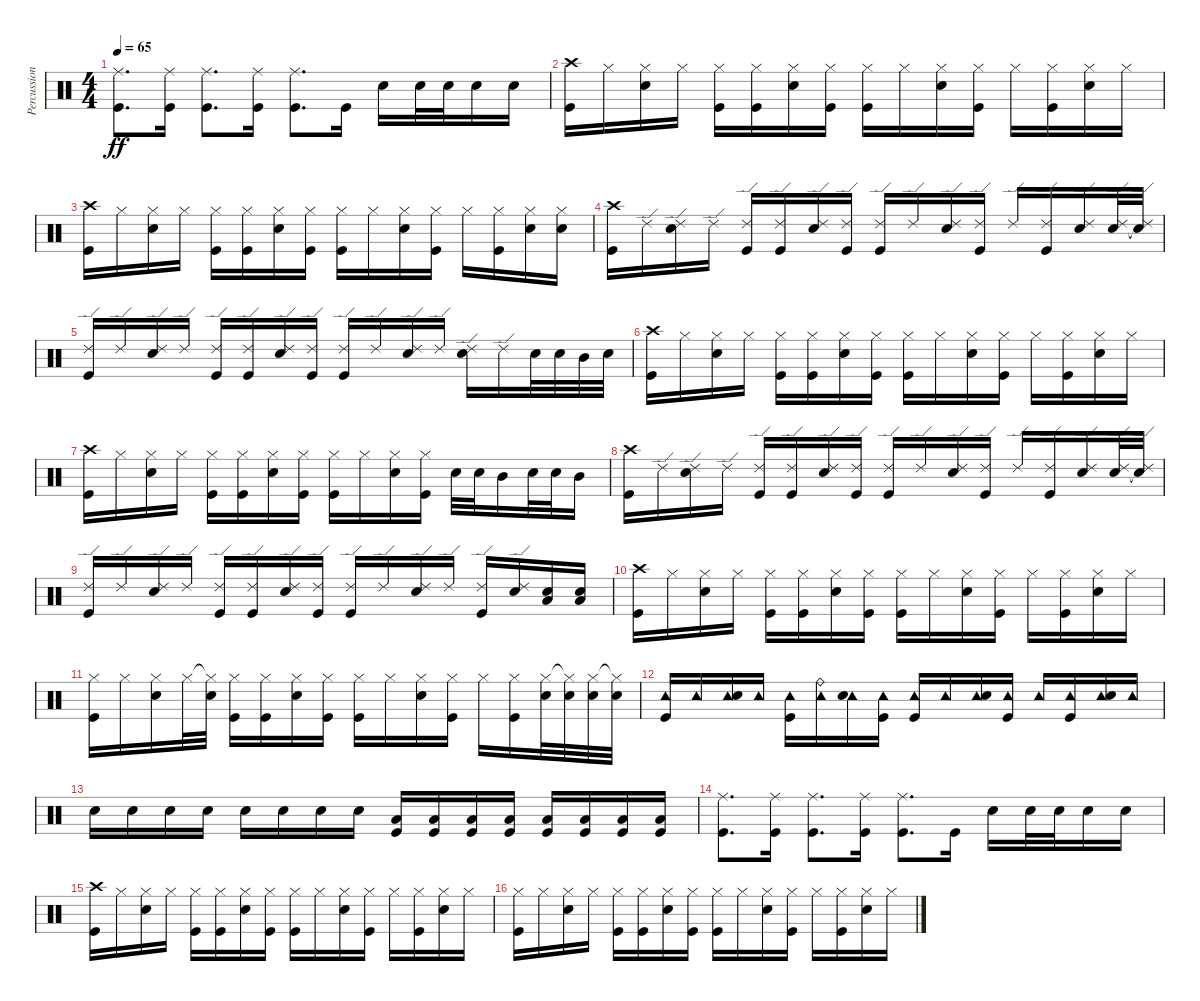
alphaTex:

\track ("Percussioni" "Percussion") {instrument percussion}
\staff {score}
\articulation defaults
\ts (4 4)
\tempo 65
\clef neutral
\ks c
("Ride (middle)" "Kick (hit)").8{d dy ff} ("Ride (middle)" "Kick (hit)").16 ("Ride (middle)" "Kick (hit)").8{d} ("Ride (middle)" "Kick (hit)").16 ("Ride (middle)" "Kick (hit)").8{d} "Kick (hit)".16 "Snare (hit) 2".16 "Snare (hit) 2".32 "Snare (hit) 2".32 "Snare (hit) 2".16 "Snare (hit) 2".16 |
("Crash high (hit)" "Kick (hit)").16 "Hi-Hat (closed)".16 ("Hi-Hat (closed)" "Snare (hit) 2").16 "Hi-Hat (closed)".16 ("Hi-Hat (closed)" "Kick (hit)").16 ("Hi-Hat (closed)" "Kick (hit)").16 ("Hi-Hat (closed)" "Snare (hit) 2").16 ("Hi-Hat (closed)" "Kick (hit)").16 ("Hi-Hat (closed)" "Kick (hit)").16 "Hi-Hat (closed)".16 ("Hi-Hat (closed)" "Snare (hit) 2").16 ("Hi-Hat (closed)" "Kick (hit)").16 "Hi-Hat (closed)".16 ("Hi-Hat (closed)" "Kick (hit)").16 ("Hi-Hat (closed)" "Snare (hit) 2").16 "Hi-Hat (closed)".16 |
("Crash high (hit)" "Kick (hit)").16 "Hi-Hat (closed)".16 ("Hi-Hat (closed)" "Snare (hit) 2").16 "Hi-Hat (closed)".16 ("Hi-Hat (closed)" "Kick (hit)").16 ("Hi-Hat (closed)" "Kick (hit)").16 ("Hi-Hat (closed)" "Snare (hit) 2").16 ("Hi-Hat (closed)" "Kick (hit)").16 ("Hi-Hat (closed)" "Kick (hit)").16 "Hi-Hat (closed)".16 ("Hi-Hat (closed)" "Snare (hit) 2").16 ("Hi-Hat (closed)" "Kick (hit)").16 "Hi-Hat (closed)".16 ("Hi-Hat (closed)" "Kick (hit)").16 ("Hi-Hat (closed)" "Snare (hit) 2").16 ("Hi-Hat (closed)" "Snare (hit) 2").16 |
("Crash high (hit)" "Kick (hit)").16 "Ride (edge) 2".16 ("Ride (edge) 2" "Snare (hit) 2").16 "Ride (edge) 2".16 ("Ride (edge) 2" "Kick (hit)").16 ("Ride (edge) 2" "Kick (hit)").16 ("Ride (edge) 2" "Snare (hit) 2").16 ("Ride (edge) 2" "Kick (hit)").16 ("Ride (edge) 2" "Kick (hit)").16 "Ride (edge) 2".16 ("Ride (edge) 2" "Snare (hit) 2").16 ("Ride (edge) 2" "Kick (hit)").16 "Ride (edge) 2".16 ("Ride (edge) 2" "Kick (hit)").16 ("Ride (edge) 2" "Snare (hit) 2").16 ("Ride (edge) 2" "Snare (hit) 2").32 ("Ride (edge) 2"{t} "Snare (hit) 2").32 |
("Ride (edge) 2" "Kick (hit)").16 "Ride (edge) 2".16 ("Ride (edge) 2" "Snare (hit) 2").16 "Ride (edge) 2".16 ("Ride (edge) 2" "Kick (hit)").16 ("Ride (edge) 2" "Kick (hit)").16 ("Ride (edge) 2" "Snare (hit) 2").16 ("Ride (edge) 2" "Kick (hit)").16 ("Ride (edge) 2" "Kick (hit)").16 "Ride (edge) 2".16 ("Ride (edge) 2" "Snare (hit) 2").16 "Ride (edge) 2".16 ("Ride (edge) 2" "Snare (hit) 2").16 "Ride (edge) 2".16 "Snare (hit) 2".32 "Snare (hit) 2".32 "Mid Tom (hit)".32 "Snare (hit) 2".32 |
("Crash high (hit)" "Kick (hit)").16 "Hi-Hat (closed)".16 ("Hi-Hat (closed)" "Snare (hit) 2").16 "Hi-Hat (closed)".16 ("Hi-Hat (closed)" "Kick (hit)").16 ("Hi-Hat (closed)" "Kick (hit)").16 ("Hi-Hat (closed)" "Snare (hit) 2").16 ("Hi-Hat (closed)" "Kick (hit)").16 ("Hi-Hat (closed)" "Kick (hit)").16 "Hi-Hat (closed)".16 ("Hi-Hat (closed)" "Snare (hit) 2").16 ("Hi-Hat (closed)" "Kick (hit)").16 "Hi-Hat (closed)".16 ("Hi-Hat (closed)" "Kick (hit)").16 ("Hi-Hat (closed)" "Snare (hit) 2").16 "Hi-Hat (closed)".16 |
("Crash high (hit)" "Kick (hit)").16 "Hi-Hat (closed)".16 ("Hi-Hat (closed)" "Snare (hit) 2").16 "Hi-Hat (closed)".16 ("Hi-Hat (closed)" "Kick (hit)").16 ("Hi-Hat (closed)" "Kick (hit)").16 ("Hi-Hat (closed)" "Snare (hit) 2").16 ("Hi-Hat (closed)" "Kick (hit)").16 ("Hi-Hat (closed)" "Kick (hit)").16 "Hi-Hat (closed)".16 ("Hi-Hat (closed)" "Snare (hit) 2").16 ("Hi-Hat (closed)" "Kick (hit)").16 "Snare (hit) 2".32 "Snare (hit) 2".32 "Mid Tom (hit)".16 "Snare (hit) 2".32 "Snare (hit) 2".32 "Mid Tom (hit)".16 |
("Crash high (hit)" "Kick (hit)").16 "Ride (edge) 2".16 ("Ride (edge) 2" "Snare (hit) 2").16 "Ride (edge) 2".16 ("Ride (edge) 2" "Kick (hit)").16 ("Ride (edge) 2" "Kick (hit)").16 ("Ride (edge) 2" "Snare (hit) 2").16 ("Ride (edge) 2" "Kick (hit)").16 ("Ride (edge) 2" "Kick (hit)").16 "Ride (edge) 2".16 ("Ride (edge) 2" "Snare (hit) 2").16 ("Ride (edge) 2" "Kick (hit)").16 "Ride (edge) 2".16 ("Ride (edge) 2" "Kick (hit)").16 ("Ride (edge) 2" "Snare (hit) 2").16 ("Ride (edge) 2" "Snare (hit) 2").32 ("Ride (edge) 2"{t} "Snare (hit) 2").32 |
("Ride (edge) 2" "Kick (hit)").16 "Ride (edge) 2".16 ("Ride (edge) 2" "Snare (hit) 2").16 "Ride (edge) 2".16 ("Ride (edge) 2" "Kick (hit)").16 ("Ride (edge) 2" "Kick (hit)").16 ("Ride (edge) 2" "Snare (hit) 2").16 ("Ride (edge) 2" "Kick (hit)").16 ("Ride (edge) 2" "Kick (hit)").16 "Ride (edge) 2".16 ("Ride (edge) 2" "Snare (hit) 2").16 "Ride (edge) 2".16 ("Ride (edge) 2" "Kick (hit)").16 ("Ride (edge) 2" "Snare (hit) 2").16 ("Low Floor Tom (hit)" "Snare (hit) 2").16 ("Low Floor Tom (hit)" "Snare (hit) 2").16 |
("Crash high (hit)" "Kick (hit)").16 "Hi-Hat (closed)".16 ("Hi-Hat (closed)" "Snare (hit) 2").16 "Hi-Hat (closed)".16 ("Hi-Hat (closed)" "Kick (hit)").16 ("Hi-Hat (closed)" "Kick (hit)").16 ("Hi-Hat (closed)" "Snare (hit) 2").16 ("Hi-Hat (closed)" "Kick (hit)").16 ("Hi-Hat (closed)" "Kick (hit)").16 "Hi-Hat (closed)".16 ("Hi-Hat (closed)" "Snare (hit) 2").16 ("Hi-Hat (closed)" "Kick (hit)").16 "Hi-Hat (closed)".16 ("Hi-Hat (closed)" "Kick (hit)").16 ("Hi-Hat (closed)" "Snare (hit) 2").16 "Hi-Hat (closed)".16 |
("Hi-Hat (closed)" "Kick (hit)").16 "Hi-Hat (closed)".16 ("Hi-Hat (closed)" "Snare (hit) 2").16 "Hi-Hat (closed)".32 ("Hi-Hat (closed)"{t} "Snare (hit) 2").32 ("Hi-Hat (closed)" "Kick (hit)").16 ("Hi-Hat (closed)" "Kick (hit)").16 ("Hi-Hat (closed)" "Snare (hit) 2").16 ("Hi-Hat (closed)" "Kick (hit)").16 ("Hi-Hat (closed)" "Kick (hit)").16 "Hi-Hat (closed)".16 ("Hi-Hat (closed)" "Snare (hit) 2").16 ("Hi-Hat (closed)" "Kick (hit)").16 "Hi-Hat (closed)".16 ("Hi-Hat (closed)" "Kick (hit)").16 ("Hi-Hat (closed)" "Snare (hit) 2").32 ("Hi-Hat (closed)"{t} "Snare (hit) 2").32 ("Hi-Hat (closed)" "Snare (hit) 2").32 ("Hi-Hat (closed)"{t} "Snare (hit) 2").32 |
("Tambourine (hit)" "Kick (hit)").16 "Tambourine (hit)".16 ("Tambourine (hit)" "Snare (hit) 2").16 "Tambourine (hit)".16 ("Tambourine (hit)" "Kick (hit)").16 ("Tambourine (hit)" "Ride (bell)").16 ("Tambourine (hit)" "Snare (hit) 2").16 ("Tambourine (hit)" "Kick (hit)").16 ("Tambourine (hit)" "Kick (hit)").16 "Tambourine (hit)".16 ("Tambourine (hit)" "Snare (hit) 2").16 ("Tambourine (hit)" "Kick (hit)").16 "Tambourine (hit)".16 ("Tambourine (hit)" "Kick (hit)").16 ("Tambourine (hit)" "Snare (hit) 2").16 "Tambourine (hit)".16 |
"Snare (hit) 2".16 "Snare (hit) 2".16 "Snare (hit) 2".16 "Snare (hit) 2".16 "Snare (hit) 2".16 "Snare (hit) 2".16 "Snare (hit) 2".16 "Snare (hit) 2".16 ("Low Floor Tom (hit)" "Kick (hit)").16 ("Low Floor Tom (hit)" "Kick (hit)").16 ("Low Floor Tom (hit)" "Kick (hit)").16 ("Low Floor Tom (hit)" "Kick (hit)").16 ("Low Floor Tom (hit)" "Kick (hit)").16 ("Low Floor Tom (hit)" "Kick (hit)").16 ("Low Floor Tom (hit)" "Kick (hit)").16 ("Low Floor Tom (hit)" "Kick (hit)").16 |
("Ride (middle)" "Kick (hit)").8{d} ("Ride (middle)" "Kick (hit)").16 ("Ride (middle)" "Kick (hit)").8{d} ("Ride (middle)" "Kick (hit)").16 ("Ride (middle)" "Kick (hit)").8{d} "Kick (hit)".16 "Snare (hit) 2".16 "Snare (hit) 2".32 "Snare (hit) 2".32 "Snare (hit) 2".16 "Snare (hit) 2".16 |
("Crash high (hit)" "Kick (hit)").16 "Hi-Hat (closed)".16 ("Hi-Hat (closed)" "Snare (hit) 2").16 "Hi-Hat (closed)".16 ("Hi-Hat (closed)" "Kick (hit)").16 ("Hi-Hat (closed)" "Kick (hit)").16 ("Hi-Hat (closed)" "Snare (hit) 2").16 ("Hi-Hat (closed)" "Kick (hit)").16 ("Hi-Hat (closed)" "Kick (hit)").16 "Hi-Hat (closed)".16 ("Hi-Hat (closed)" "Snare (hit) 2").16 ("Hi-Hat (closed)" "Kick (hit)").16 "Hi-Hat (closed)".16 ("Hi-Hat (closed)" "Kick (hit)").16 ("Hi-Hat (closed)" "Snare (hit) 2").16 "Hi-Hat (closed)".16 |
("Hi-Hat (closed)" "Kick (hit)").16 "Hi-Hat (closed)".16 ("Hi-Hat (closed)" "Snare (hit) 2").16 "Hi-Hat (closed)".16 ("Hi-Hat (closed)" "Kick (hit)").16 ("Hi-Hat (closed)" "Kick (hit)").16 ("Hi-Hat (closed)" "Snare (hit) 2").16 ("Hi-Hat (closed)" "Kick (hit)").16 ("Hi-Hat (closed)" "Kick (hit)").16 "Hi-Hat (closed)".16 ("Hi-Hat (closed)" "Snare (hit) 2").16 ("Hi-Hat (closed)" "Kick (hit)").16 "Hi-Hat (closed)".16 ("Hi-Hat (closed)" "Kick (hit)").16 ("Hi-Hat (closed)" "Snare (hit) 2").16 "Hi-Hat (closed)".16
